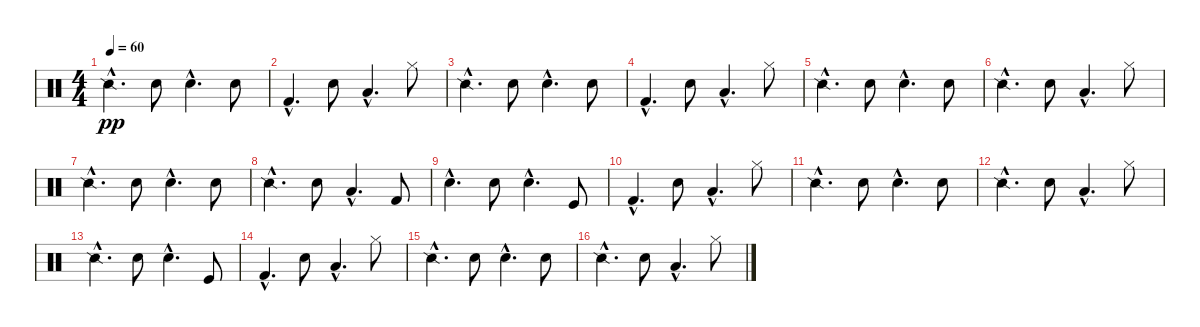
\track "" {instrument percussion}
\staff {score}
\articulation defaults
\ts (4 4)
\tempo 60
\clef neutral
\ks c "Snare (side stick) 2"{hac}.4{d dy pp} "Metronome (bell)".8 "Snare (hit) 2"{hac}.4{d} "Metronome (bell)".8
|
"Kick (hit) 2"{hac}.4{d} "Hand Clap (hit)".8 "Low Tom (hit)"{hac}.4{d} "Hi-Hat (closed)".8 |
"Snare (side stick) 2"{hac}.4{d} "Metronome (bell)".8 "Hand Clap (hit)"{hac}.4{d} "Metronome (bell)".8 |
"Kick (hit) 2"{hac}.4{d} "Hand Clap (hit)".8 "Low Tom (hit)"{hac}.4{d} "Hi-Hat (closed)".8 |
"Snare (side stick) 2"{hac}.4{d} "Metronome (bell)".8 "Snare (hit) 2"{hac}.4{d} "Metronome (bell)".8 |
"Snare (side stick) 2"{hac}.4{d} "Metronome (bell)".8 "Low Tom (hit)"{hac}.4{d} "Hi-Hat (closed)".8 |
"Snare (side stick) 2"{hac}.4{d} "Metronome (bell)".8 "Snare (hit) 2"{hac}.4{d} "Metronome (bell)".8 |
"Snare (side stick) 2"{hac}.4{d} "Metronome (bell)".8 "Low Floor Tom (hit)"{hac}.4{d} "Kick (hit) 2".8 |
"Metronome (bell)"{hac}.4{d} "Snare (hit) 2".8 "Snare (hit) 2"{hac}.4{d} "Kick (hit)".8 |
"Kick (hit) 2"{hac}.4{d} "Hand Clap (hit)".8 "Low Tom (hit)"{hac}.4{d} "Hi-Hat (closed)".8 |
"Snare (side stick) 2"{hac}.4{d} "Metronome (bell)".8 "Hand Clap (hit)"{hac}.4{d} "Metronome (bell)".8 |
"Snare (side stick) 2"{hac}.4{d} "Metronome (bell)".8 "Low Tom (hit)"{hac}.4{d} "Hi-Hat (closed)".8 |
"Snare (side stick) 2"{hac}.4{d} "Metronome (bell)".8 "Snare (hit) 2"{hac}.4{d} "Kick (hit)".8 |
"Kick (hit) 2"{hac}.4{d} "Hand Clap (hit)".8 "Low Tom (hit)"{hac}.4{d} "Hi-Hat (closed)".8 |
"Snare (side stick) 2"{hac}.4{d} "Metronome (bell)".8 "Snare (hit) 2"{hac}.4{d} "Metronome (bell)".8 |
"Snare (side stick) 2"{hac}.4{d} "Metronome (bell)".8 "Low Tom (hit)"{hac}.4{d} "Hi-Hat (closed)".8
